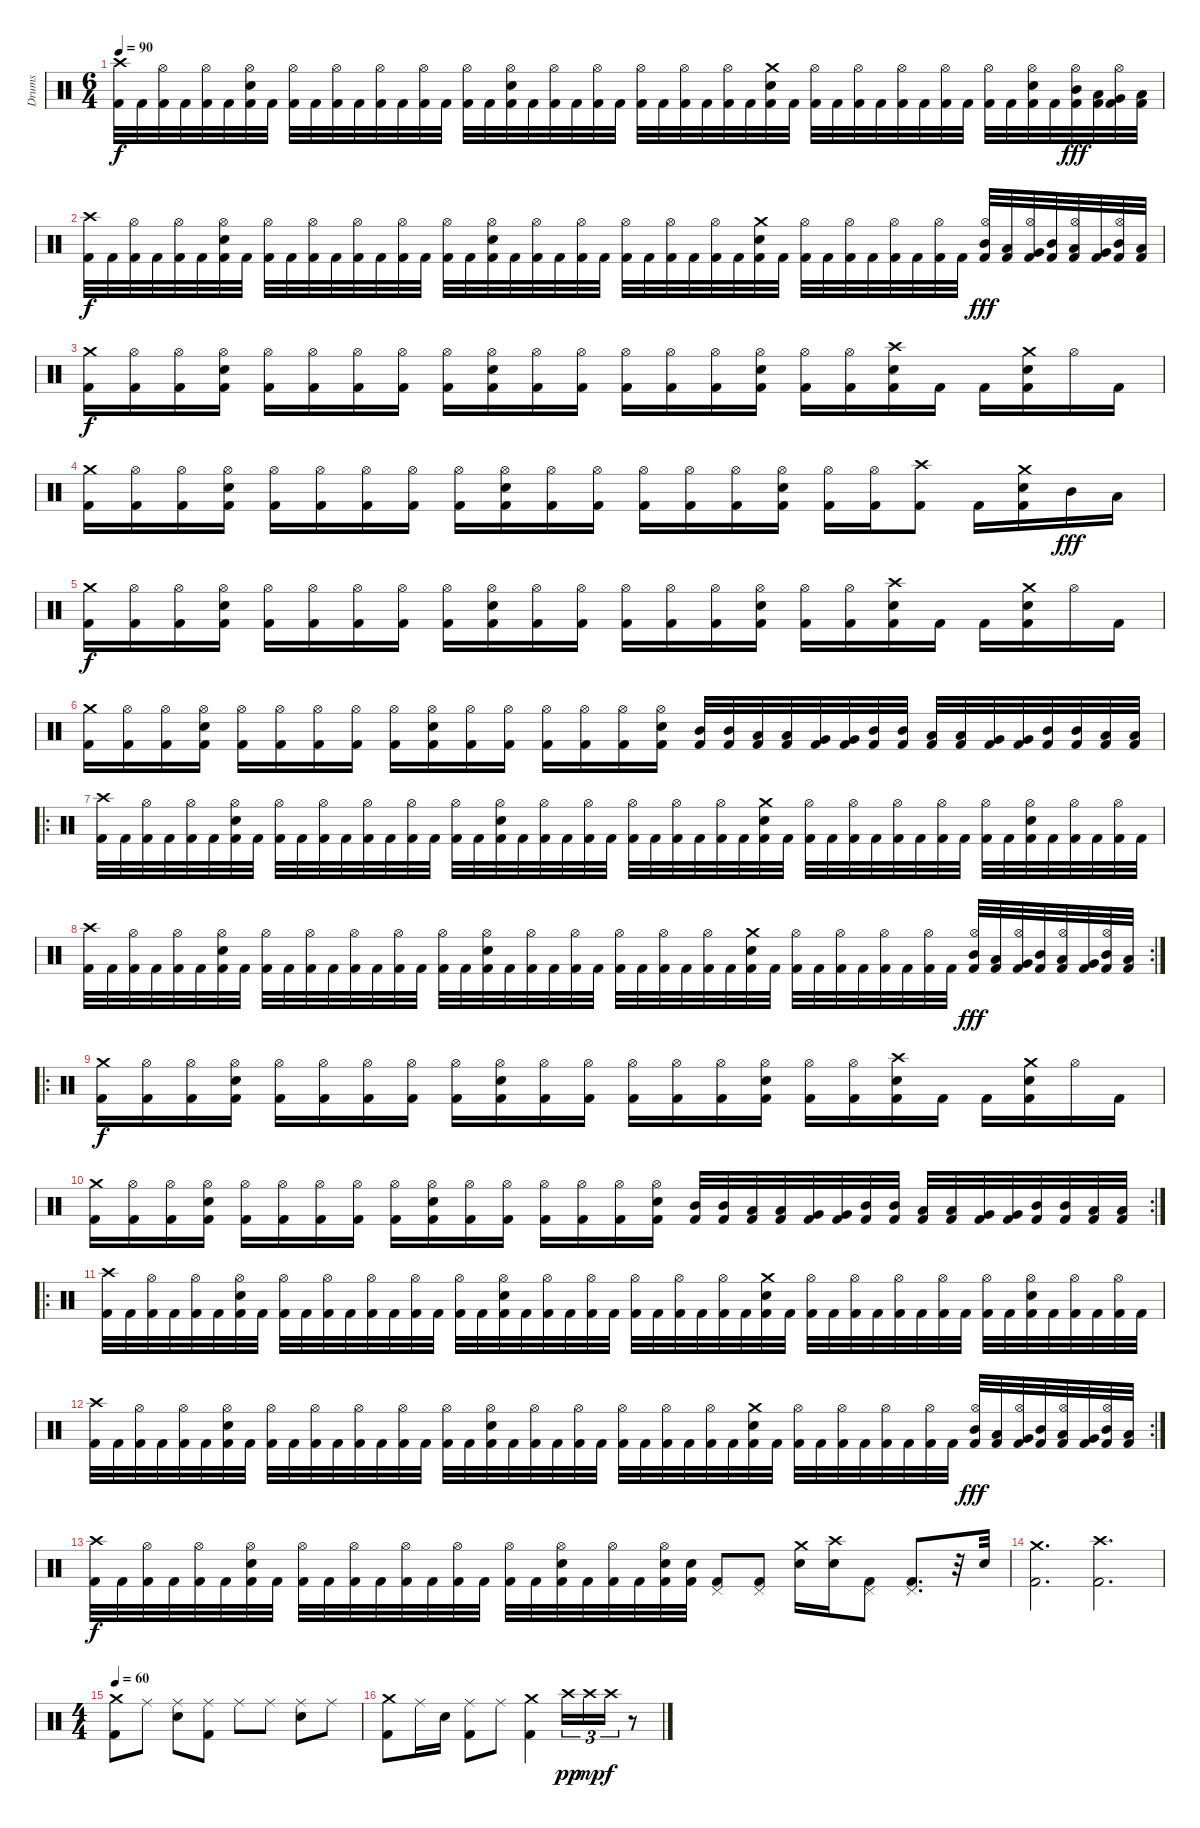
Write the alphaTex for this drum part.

\track ("Drums" "Drums") {instrument percussion}
\staff {score}
\articulation defaults
\ts (6 4)
\tempo 90
\clef neutral
\ks c
("Crash high (hit)" "Kick (hit) 2").32{dy f} "Kick (hit) 2".32 ("Hi-Hat (open)" "Kick (hit) 2").32 "Kick (hit) 2".32 ("Hi-Hat (open)" "Kick (hit) 2").32 "Kick (hit) 2".32 ("Hi-Hat (open)" "Electric Snare (hit)" "Kick (hit) 2").32 "Kick (hit) 2".32 ("Hi-Hat (open)" "Kick (hit) 2").32 "Kick (hit) 2".32 ("Hi-Hat (open)" "Kick (hit) 2").32 "Kick (hit) 2".32 ("Hi-Hat (open)" "Kick (hit) 2").32 "Kick (hit) 2".32 ("Hi-Hat (open)" "Kick (hit) 2").32 "Kick (hit) 2".32 ("Hi-Hat (open)" "Kick (hit) 2").32 "Kick (hit) 2".32 ("Hi-Hat (open)" "Electric Snare (hit)" "Kick (hit) 2").32 "Kick (hit) 2".32 ("Hi-Hat (open)" "Kick (hit) 2").32 "Kick (hit) 2".32 ("Hi-Hat (open)" "Kick (hit) 2").32 "Kick (hit) 2".32 ("Hi-Hat (open)" "Kick (hit) 2").32 "Kick (hit) 2".32 ("Hi-Hat (open)" "Kick (hit) 2").32 "Kick (hit) 2".32 ("Hi-Hat (open)" "Kick (hit) 2").32 "Kick (hit) 2".32 ("Crash medium (hit)" "Electric Snare (hit)" "Kick (hit) 2").32 "Kick (hit) 2".32 ("Hi-Hat (open)" "Kick (hit) 2").32 "Kick (hit) 2".32 ("Hi-Hat (open)" "Kick (hit) 2").32 "Kick (hit) 2".32 ("Hi-Hat (open)" "Kick (hit) 2").32 "Kick (hit) 2".32 ("Hi-Hat (open)" "Kick (hit) 2").32 "Kick (hit) 2".32 ("Hi-Hat (open)" "Kick (hit) 2").32 "Kick (hit) 2".32 ("Hi-Hat (open)" "Electric Snare (hit)" "Kick (hit) 2").32 "Kick (hit) 2".32 ("Hi-Hat (open)" "Mid Tom (hit)" "Kick (hit) 2").32{dy fff} ("Low Tom (hit)" "Kick (hit) 2").32 ("Hi-Hat (open)" "Very Low Tom (hit)" "Kick (hit) 2").32 ("Low Floor Tom (hit)" "Kick (hit) 2").32 |
("Crash high (hit)" "Kick (hit) 2").32{dy f} "Kick (hit) 2".32 ("Hi-Hat (open)" "Kick (hit) 2").32 "Kick (hit) 2".32 ("Hi-Hat (open)" "Kick (hit) 2").32 "Kick (hit) 2".32 ("Hi-Hat (open)" "Electric Snare (hit)" "Kick (hit) 2").32 "Kick (hit) 2".32 ("Hi-Hat (open)" "Kick (hit) 2").32 "Kick (hit) 2".32 ("Hi-Hat (open)" "Kick (hit) 2").32 "Kick (hit) 2".32 ("Hi-Hat (open)" "Kick (hit) 2").32 "Kick (hit) 2".32 ("Hi-Hat (open)" "Kick (hit) 2").32 "Kick (hit) 2".32 ("Hi-Hat (open)" "Kick (hit) 2").32 "Kick (hit) 2".32 ("Hi-Hat (open)" "Electric Snare (hit)" "Kick (hit) 2").32 "Kick (hit) 2".32 ("Hi-Hat (open)" "Kick (hit) 2").32 "Kick (hit) 2".32 ("Hi-Hat (open)" "Kick (hit) 2").32 "Kick (hit) 2".32 ("Hi-Hat (open)" "Kick (hit) 2").32 "Kick (hit) 2".32 ("Hi-Hat (open)" "Kick (hit) 2").32 "Kick (hit) 2".32 ("Hi-Hat (open)" "Kick (hit) 2").32 "Kick (hit) 2".32 ("Crash medium (hit)" "Electric Snare (hit)" "Kick (hit) 2").32 "Kick (hit) 2".32 ("Hi-Hat (open)" "Kick (hit) 2").32 "Kick (hit) 2".32 ("Hi-Hat (open)" "Kick (hit) 2").32 "Kick (hit) 2".32 ("Hi-Hat (open)" "Kick (hit) 2").32 "Kick (hit) 2".32 ("Hi-Hat (open)" "Kick (hit) 2").32 "Kick (hit) 2".32 ("Hi-Hat (open)" "Mid Tom (hit)" "Kick (hit) 2").32{dy fff} ("Low Tom (hit)" "Kick (hit) 2").32 ("Hi-Hat (open)" "Very Low Tom (hit)" "Kick (hit) 2").32 ("Mid Tom (hit)" "Kick (hit) 2").32 ("Hi-Hat (open)" "Low Tom (hit)" "Kick (hit) 2").32 ("Very Low Tom (hit)" "Kick (hit) 2").32 ("Hi-Hat (open)" "Mid Tom (hit)" "Kick (hit) 2").32 ("Low Tom (hit)" "Kick (hit) 2").32 |
("Crash medium (hit)" "Kick (hit) 2").16{dy f} ("Hi-Hat (open)" "Kick (hit) 2").16 ("Hi-Hat (open)" "Kick (hit) 2").16 ("Hi-Hat (open)" "Electric Snare (hit)" "Kick (hit) 2").16 ("Hi-Hat (open)" "Kick (hit) 2").16 ("Hi-Hat (open)" "Kick (hit) 2").16 ("Hi-Hat (open)" "Kick (hit) 2").16 ("Hi-Hat (open)" "Kick (hit) 2").16 ("Hi-Hat (open)" "Kick (hit) 2").16 ("Hi-Hat (open)" "Electric Snare (hit)" "Kick (hit) 2").16 ("Hi-Hat (open)" "Kick (hit) 2").16 ("Hi-Hat (open)" "Kick (hit) 2").16 ("Hi-Hat (open)" "Kick (hit) 2").16 ("Hi-Hat (open)" "Kick (hit) 2").16 ("Hi-Hat (open)" "Kick (hit) 2").16 ("Hi-Hat (open)" "Electric Snare (hit)" "Kick (hit) 2").16 ("Hi-Hat (open)" "Kick (hit) 2").16 ("Hi-Hat (open)" "Kick (hit) 2").16 ("Crash high (hit)" "Electric Snare (hit)" "Kick (hit) 2").16 "Kick (hit) 2".16 "Kick (hit) 2".16 ("Crash medium (hit)" "Electric Snare (hit)" "Kick (hit) 2").16 "Hi-Hat (open)".16 "Kick (hit) 2".16 |
("Crash medium (hit)" "Kick (hit) 2").16 ("Hi-Hat (open)" "Kick (hit) 2").16 ("Hi-Hat (open)" "Kick (hit) 2").16 ("Hi-Hat (open)" "Electric Snare (hit)" "Kick (hit) 2").16 ("Hi-Hat (open)" "Kick (hit) 2").16 ("Hi-Hat (open)" "Kick (hit) 2").16 ("Hi-Hat (open)" "Kick (hit) 2").16 ("Hi-Hat (open)" "Kick (hit) 2").16 ("Hi-Hat (open)" "Kick (hit) 2").16 ("Hi-Hat (open)" "Electric Snare (hit)" "Kick (hit) 2").16 ("Hi-Hat (open)" "Kick (hit) 2").16 ("Hi-Hat (open)" "Kick (hit) 2").16 ("Hi-Hat (open)" "Kick (hit) 2").16 ("Hi-Hat (open)" "Kick (hit) 2").16 ("Hi-Hat (open)" "Kick (hit) 2").16 ("Hi-Hat (open)" "Electric Snare (hit)" "Kick (hit) 2").16 ("Hi-Hat (open)" "Kick (hit) 2").16 ("Hi-Hat (open)" "Kick (hit) 2").16 ("Crash high (hit)" "Kick (hit) 2").8 "Kick (hit) 2".16 ("Crash medium (hit)" "Electric Snare (hit)" "Kick (hit) 2").16 "Mid Tom (hit)".16{dy fff} "Low Tom (hit)".16 |
("Crash medium (hit)" "Kick (hit) 2").16{dy f} ("Hi-Hat (open)" "Kick (hit) 2").16 ("Hi-Hat (open)" "Kick (hit) 2").16 ("Hi-Hat (open)" "Electric Snare (hit)" "Kick (hit) 2").16 ("Hi-Hat (open)" "Kick (hit) 2").16 ("Hi-Hat (open)" "Kick (hit) 2").16 ("Hi-Hat (open)" "Kick (hit) 2").16 ("Hi-Hat (open)" "Kick (hit) 2").16 ("Hi-Hat (open)" "Kick (hit) 2").16 ("Hi-Hat (open)" "Electric Snare (hit)" "Kick (hit) 2").16 ("Hi-Hat (open)" "Kick (hit) 2").16 ("Hi-Hat (open)" "Kick (hit) 2").16 ("Hi-Hat (open)" "Kick (hit) 2").16 ("Hi-Hat (open)" "Kick (hit) 2").16 ("Hi-Hat (open)" "Kick (hit) 2").16 ("Hi-Hat (open)" "Electric Snare (hit)" "Kick (hit) 2").16 ("Hi-Hat (open)" "Kick (hit) 2").16 ("Hi-Hat (open)" "Kick (hit) 2").16 ("Crash high (hit)" "Electric Snare (hit)" "Kick (hit) 2").16 "Kick (hit) 2".16 "Kick (hit) 2".16 ("Crash medium (hit)" "Electric Snare (hit)" "Kick (hit) 2").16 "Hi-Hat (open)".16 "Kick (hit) 2".16 |
("Crash medium (hit)" "Kick (hit) 2").16 ("Hi-Hat (open)" "Kick (hit) 2").16 ("Hi-Hat (open)" "Kick (hit) 2").16 ("Hi-Hat (open)" "Electric Snare (hit)" "Kick (hit) 2").16 ("Hi-Hat (open)" "Kick (hit) 2").16 ("Hi-Hat (open)" "Kick (hit) 2").16 ("Hi-Hat (open)" "Kick (hit) 2").16 ("Hi-Hat (open)" "Kick (hit) 2").16 ("Hi-Hat (open)" "Kick (hit) 2").16 ("Hi-Hat (open)" "Electric Snare (hit)" "Kick (hit) 2").16 ("Hi-Hat (open)" "Kick (hit) 2").16 ("Hi-Hat (open)" "Kick (hit) 2").16 ("Hi-Hat (open)" "Kick (hit) 2").16 ("Hi-Hat (open)" "Kick (hit) 2").16 ("Hi-Hat (open)" "Kick (hit) 2").16 ("Hi-Hat (open)" "Electric Snare (hit)" "Kick (hit) 2").16 ("Mid Tom (hit)" "Kick (hit) 2").32 ("Mid Tom (hit)" "Kick (hit) 2").32 ("Low Tom (hit)" "Kick (hit) 2").32 ("Low Tom (hit)" "Kick (hit) 2").32 ("Very Low Tom (hit)" "Kick (hit) 2").32 ("Very Low Tom (hit)" "Kick (hit) 2").32 ("Mid Tom (hit)" "Kick (hit) 2").32 ("Mid Tom (hit)" "Kick (hit) 2").32 ("Low Tom (hit)" "Kick (hit) 2").32 ("Low Tom (hit)" "Kick (hit) 2").32 ("Very Low Tom (hit)" "Kick (hit) 2").32 ("Very Low Tom (hit)" "Kick (hit) 2").32 ("Mid Tom (hit)" "Kick (hit) 2").32 ("Mid Tom (hit)" "Kick (hit) 2").32 ("Low Tom (hit)" "Kick (hit) 2").32 ("Low Tom (hit)" "Kick (hit) 2").32 |
\ro
("Crash high (hit)" "Kick (hit) 2").32 "Kick (hit) 2".32 ("Hi-Hat (open)" "Kick (hit) 2").32 "Kick (hit) 2".32 ("Hi-Hat (open)" "Kick (hit) 2").32 "Kick (hit) 2".32 ("Hi-Hat (open)" "Electric Snare (hit)" "Kick (hit) 2").32 "Kick (hit) 2".32 ("Hi-Hat (open)" "Kick (hit) 2").32 "Kick (hit) 2".32 ("Hi-Hat (open)" "Kick (hit) 2").32 "Kick (hit) 2".32 ("Hi-Hat (open)" "Kick (hit) 2").32 "Kick (hit) 2".32 ("Hi-Hat (open)" "Kick (hit) 2").32 "Kick (hit) 2".32 ("Hi-Hat (open)" "Kick (hit) 2").32 "Kick (hit) 2".32 ("Hi-Hat (open)" "Electric Snare (hit)" "Kick (hit) 2").32 "Kick (hit) 2".32 ("Hi-Hat (open)" "Kick (hit) 2").32 "Kick (hit) 2".32 ("Hi-Hat (open)" "Kick (hit) 2").32 "Kick (hit) 2".32 ("Hi-Hat (open)" "Kick (hit) 2").32 "Kick (hit) 2".32 ("Hi-Hat (open)" "Kick (hit) 2").32 "Kick (hit) 2".32 ("Hi-Hat (open)" "Kick (hit) 2").32 "Kick (hit) 2".32 ("Crash medium (hit)" "Electric Snare (hit)" "Kick (hit) 2").32 "Kick (hit) 2".32 ("Hi-Hat (open)" "Kick (hit) 2").32 "Kick (hit) 2".32 ("Hi-Hat (open)" "Kick (hit) 2").32 "Kick (hit) 2".32 ("Hi-Hat (open)" "Kick (hit) 2").32 "Kick (hit) 2".32 ("Hi-Hat (open)" "Kick (hit) 2").32 "Kick (hit) 2".32 ("Hi-Hat (open)" "Kick (hit) 2").32 "Kick (hit) 2".32 ("Hi-Hat (open)" "Electric Snare (hit)" "Kick (hit) 2").32 "Kick (hit) 2".32 ("Hi-Hat (open)" "Kick (hit) 2").32 "Kick (hit) 2".32 ("Hi-Hat (open)" "Kick (hit) 2").32 "Kick (hit) 2".32 |
\rc 2
("Crash high (hit)" "Kick (hit) 2").32 "Kick (hit) 2".32 ("Hi-Hat (open)" "Kick (hit) 2").32 "Kick (hit) 2".32 ("Hi-Hat (open)" "Kick (hit) 2").32 "Kick (hit) 2".32 ("Hi-Hat (open)" "Electric Snare (hit)" "Kick (hit) 2").32 "Kick (hit) 2".32 ("Hi-Hat (open)" "Kick (hit) 2").32 "Kick (hit) 2".32 ("Hi-Hat (open)" "Kick (hit) 2").32 "Kick (hit) 2".32 ("Hi-Hat (open)" "Kick (hit) 2").32 "Kick (hit) 2".32 ("Hi-Hat (open)" "Kick (hit) 2").32 "Kick (hit) 2".32 ("Hi-Hat (open)" "Kick (hit) 2").32 "Kick (hit) 2".32 ("Hi-Hat (open)" "Electric Snare (hit)" "Kick (hit) 2").32 "Kick (hit) 2".32 ("Hi-Hat (open)" "Kick (hit) 2").32 "Kick (hit) 2".32 ("Hi-Hat (open)" "Kick (hit) 2").32 "Kick (hit) 2".32 ("Hi-Hat (open)" "Kick (hit) 2").32 "Kick (hit) 2".32 ("Hi-Hat (open)" "Kick (hit) 2").32 "Kick (hit) 2".32 ("Hi-Hat (open)" "Kick (hit) 2").32 "Kick (hit) 2".32 ("Crash medium (hit)" "Electric Snare (hit)" "Kick (hit) 2").32 "Kick (hit) 2".32 ("Hi-Hat (open)" "Kick (hit) 2").32 "Kick (hit) 2".32 ("Hi-Hat (open)" "Kick (hit) 2").32 "Kick (hit) 2".32 ("Hi-Hat (open)" "Kick (hit) 2").32 "Kick (hit) 2".32 ("Hi-Hat (open)" "Kick (hit) 2").32 "Kick (hit) 2".32 ("Hi-Hat (open)" "Mid Tom (hit)" "Kick (hit) 2").32{dy fff} ("Low Tom (hit)" "Kick (hit) 2").32 ("Hi-Hat (open)" "Very Low Tom (hit)" "Kick (hit) 2").32 ("Mid Tom (hit)" "Kick (hit) 2").32 ("Hi-Hat (open)" "Low Tom (hit)" "Kick (hit) 2").32 ("Very Low Tom (hit)" "Kick (hit) 2").32 ("Hi-Hat (open)" "Mid Tom (hit)" "Kick (hit) 2").32 ("Low Tom (hit)" "Kick (hit) 2").32 |
\ro
("Crash medium (hit)" "Kick (hit) 2").16{dy f} ("Hi-Hat (open)" "Kick (hit) 2").16 ("Hi-Hat (open)" "Kick (hit) 2").16 ("Hi-Hat (open)" "Electric Snare (hit)" "Kick (hit) 2").16 ("Hi-Hat (open)" "Kick (hit) 2").16 ("Hi-Hat (open)" "Kick (hit) 2").16 ("Hi-Hat (open)" "Kick (hit) 2").16 ("Hi-Hat (open)" "Kick (hit) 2").16 ("Hi-Hat (open)" "Kick (hit) 2").16 ("Hi-Hat (open)" "Electric Snare (hit)" "Kick (hit) 2").16 ("Hi-Hat (open)" "Kick (hit) 2").16 ("Hi-Hat (open)" "Kick (hit) 2").16 ("Hi-Hat (open)" "Kick (hit) 2").16 ("Hi-Hat (open)" "Kick (hit) 2").16 ("Hi-Hat (open)" "Kick (hit) 2").16 ("Hi-Hat (open)" "Electric Snare (hit)" "Kick (hit) 2").16 ("Hi-Hat (open)" "Kick (hit) 2").16 ("Hi-Hat (open)" "Kick (hit) 2").16 ("Crash high (hit)" "Electric Snare (hit)" "Kick (hit) 2").16 "Kick (hit) 2".16 "Kick (hit) 2".16 ("Crash medium (hit)" "Electric Snare (hit)" "Kick (hit) 2").16 "Hi-Hat (open)".16 "Kick (hit) 2".16 |
\rc 2
("Crash medium (hit)" "Kick (hit) 2").16 ("Hi-Hat (open)" "Kick (hit) 2").16 ("Hi-Hat (open)" "Kick (hit) 2").16 ("Hi-Hat (open)" "Electric Snare (hit)" "Kick (hit) 2").16 ("Hi-Hat (open)" "Kick (hit) 2").16 ("Hi-Hat (open)" "Kick (hit) 2").16 ("Hi-Hat (open)" "Kick (hit) 2").16 ("Hi-Hat (open)" "Kick (hit) 2").16 ("Hi-Hat (open)" "Kick (hit) 2").16 ("Hi-Hat (open)" "Electric Snare (hit)" "Kick (hit) 2").16 ("Hi-Hat (open)" "Kick (hit) 2").16 ("Hi-Hat (open)" "Kick (hit) 2").16 ("Hi-Hat (open)" "Kick (hit) 2").16 ("Hi-Hat (open)" "Kick (hit) 2").16 ("Hi-Hat (open)" "Kick (hit) 2").16 ("Hi-Hat (open)" "Electric Snare (hit)" "Kick (hit) 2").16 ("Mid Tom (hit)" "Kick (hit) 2").32 ("Mid Tom (hit)" "Kick (hit) 2").32 ("Low Tom (hit)" "Kick (hit) 2").32 ("Low Tom (hit)" "Kick (hit) 2").32 ("Very Low Tom (hit)" "Kick (hit) 2").32 ("Very Low Tom (hit)" "Kick (hit) 2").32 ("Mid Tom (hit)" "Kick (hit) 2").32 ("Mid Tom (hit)" "Kick (hit) 2").32 ("Low Tom (hit)" "Kick (hit) 2").32 ("Low Tom (hit)" "Kick (hit) 2").32 ("Very Low Tom (hit)" "Kick (hit) 2").32 ("Very Low Tom (hit)" "Kick (hit) 2").32 ("Mid Tom (hit)" "Kick (hit) 2").32 ("Mid Tom (hit)" "Kick (hit) 2").32 ("Low Tom (hit)" "Kick (hit) 2").32 ("Low Tom (hit)" "Kick (hit) 2").32 |
\ro
("Crash high (hit)" "Kick (hit) 2").32 "Kick (hit) 2".32 ("Hi-Hat (open)" "Kick (hit) 2").32 "Kick (hit) 2".32 ("Hi-Hat (open)" "Kick (hit) 2").32 "Kick (hit) 2".32 ("Hi-Hat (open)" "Electric Snare (hit)" "Kick (hit) 2").32 "Kick (hit) 2".32 ("Hi-Hat (open)" "Kick (hit) 2").32 "Kick (hit) 2".32 ("Hi-Hat (open)" "Kick (hit) 2").32 "Kick (hit) 2".32 ("Hi-Hat (open)" "Kick (hit) 2").32 "Kick (hit) 2".32 ("Hi-Hat (open)" "Kick (hit) 2").32 "Kick (hit) 2".32 ("Hi-Hat (open)" "Kick (hit) 2").32 "Kick (hit) 2".32 ("Hi-Hat (open)" "Electric Snare (hit)" "Kick (hit) 2").32 "Kick (hit) 2".32 ("Hi-Hat (open)" "Kick (hit) 2").32 "Kick (hit) 2".32 ("Hi-Hat (open)" "Kick (hit) 2").32 "Kick (hit) 2".32 ("Hi-Hat (open)" "Kick (hit) 2").32 "Kick (hit) 2".32 ("Hi-Hat (open)" "Kick (hit) 2").32 "Kick (hit) 2".32 ("Hi-Hat (open)" "Kick (hit) 2").32 "Kick (hit) 2".32 ("Crash medium (hit)" "Electric Snare (hit)" "Kick (hit) 2").32 "Kick (hit) 2".32 ("Hi-Hat (open)" "Kick (hit) 2").32 "Kick (hit) 2".32 ("Hi-Hat (open)" "Kick (hit) 2").32 "Kick (hit) 2".32 ("Hi-Hat (open)" "Kick (hit) 2").32 "Kick (hit) 2".32 ("Hi-Hat (open)" "Kick (hit) 2").32 "Kick (hit) 2".32 ("Hi-Hat (open)" "Kick (hit) 2").32 "Kick (hit) 2".32 ("Hi-Hat (open)" "Electric Snare (hit)" "Kick (hit) 2").32 "Kick (hit) 2".32 ("Hi-Hat (open)" "Kick (hit) 2").32 "Kick (hit) 2".32 ("Hi-Hat (open)" "Kick (hit) 2").32 "Kick (hit) 2".32 |
\rc 2
("Crash high (hit)" "Kick (hit) 2").32 "Kick (hit) 2".32 ("Hi-Hat (open)" "Kick (hit) 2").32 "Kick (hit) 2".32 ("Hi-Hat (open)" "Kick (hit) 2").32 "Kick (hit) 2".32 ("Hi-Hat (open)" "Electric Snare (hit)" "Kick (hit) 2").32 "Kick (hit) 2".32 ("Hi-Hat (open)" "Kick (hit) 2").32 "Kick (hit) 2".32 ("Hi-Hat (open)" "Kick (hit) 2").32 "Kick (hit) 2".32 ("Hi-Hat (open)" "Kick (hit) 2").32 "Kick (hit) 2".32 ("Hi-Hat (open)" "Kick (hit) 2").32 "Kick (hit) 2".32 ("Hi-Hat (open)" "Kick (hit) 2").32 "Kick (hit) 2".32 ("Hi-Hat (open)" "Electric Snare (hit)" "Kick (hit) 2").32 "Kick (hit) 2".32 ("Hi-Hat (open)" "Kick (hit) 2").32 "Kick (hit) 2".32 ("Hi-Hat (open)" "Kick (hit) 2").32 "Kick (hit) 2".32 ("Hi-Hat (open)" "Kick (hit) 2").32 "Kick (hit) 2".32 ("Hi-Hat (open)" "Kick (hit) 2").32 "Kick (hit) 2".32 ("Hi-Hat (open)" "Kick (hit) 2").32 "Kick (hit) 2".32 ("Crash medium (hit)" "Electric Snare (hit)" "Kick (hit) 2").32 "Kick (hit) 2".32 ("Hi-Hat (open)" "Kick (hit) 2").32 "Kick (hit) 2".32 ("Hi-Hat (open)" "Kick (hit) 2").32 "Kick (hit) 2".32 ("Hi-Hat (open)" "Kick (hit) 2").32 "Kick (hit) 2".32 ("Hi-Hat (open)" "Kick (hit) 2").32 "Kick (hit) 2".32 ("Hi-Hat (open)" "Mid Tom (hit)" "Kick (hit) 2").32{dy fff} ("Low Tom (hit)" "Kick (hit) 2").32 ("Hi-Hat (open)" "Very Low Tom (hit)" "Kick (hit) 2").32 ("Mid Tom (hit)" "Kick (hit) 2").32 ("Hi-Hat (open)" "Low Tom (hit)" "Kick (hit) 2").32 ("Very Low Tom (hit)" "Kick (hit) 2").32 ("Hi-Hat (open)" "Mid Tom (hit)" "Kick (hit) 2").32 ("Low Tom (hit)" "Kick (hit) 2").32 |
("Crash high (hit)" "Kick (hit) 2").32{dy f} "Kick (hit) 2".32 ("Hi-Hat (open)" "Kick (hit) 2").32 "Kick (hit) 2".32 ("Hi-Hat (open)" "Kick (hit) 2").32 "Kick (hit) 2".32 ("Hi-Hat (open)" "Electric Snare (hit)" "Kick (hit) 2").32 "Kick (hit) 2".32 ("Hi-Hat (open)" "Kick (hit) 2").32 "Kick (hit) 2".32 ("Hi-Hat (open)" "Kick (hit) 2").32 "Kick (hit) 2".32 ("Hi-Hat (open)" "Kick (hit) 2").32 "Kick (hit) 2".32 ("Hi-Hat (open)" "Kick (hit) 2").32 "Kick (hit) 2".32 ("Hi-Hat (open)" "Kick (hit) 2").32 "Kick (hit) 2".32 ("Hi-Hat (open)" "Electric Snare (hit)" "Kick (hit) 2").32 "Kick (hit) 2".32 ("Hi-Hat (open)" "Kick (hit) 2").32 "Kick (hit) 2".32 ("Hi-Hat (open)" "Electric Snare (hit)" "Kick (hit) 2").32 ("Electric Snare (hit)" "Kick (hit) 2").32 ("Pedal Hi-Hat (hit)" "Kick (hit) 2").8 ("Pedal Hi-Hat (hit)" "Kick (hit) 2").8 ("Crash medium (hit)" "Electric Snare (hit)").16 ("Crash high (hit)" "Electric Snare (hit)").16 ("Pedal Hi-Hat (hit)" "Kick (hit) 2").8 ("Pedal Hi-Hat (hit)" "Kick (hit) 2").8{d} r.32 "Electric Snare (hit)".32 |
("Crash medium (hit)" "Kick (hit) 2").2{d} ("Crash high (hit)" "Kick (hit) 2").2{d} |
\ts (4 4)
\tempo 60
("Crash medium (hit)" "Kick (hit) 2").8 "Ride (middle)".8 ("Ride (middle)" "Electric Snare (hit)").8 ("Ride (middle)" "Kick (hit) 2").8 "Ride (middle)".8 "Ride (middle)".8 ("Ride (middle)" "Electric Snare (hit)").8 "Ride (middle)".8 |
("Crash medium (hit)" "Kick (hit) 2").8 "Ride (middle)".16 "Electric Snare (hit)".16 ("Ride (middle)" "Kick (hit) 2").8 "Ride (middle)".8 ("Crash medium (hit)" "Kick (hit) 2").4 "Crash high (hit)".16{tu (3 2) dy pp} "Crash high (hit)".16{tu (3 2) dy mp} "Crash high (hit)".16{tu (3 2) dy f} r.8
